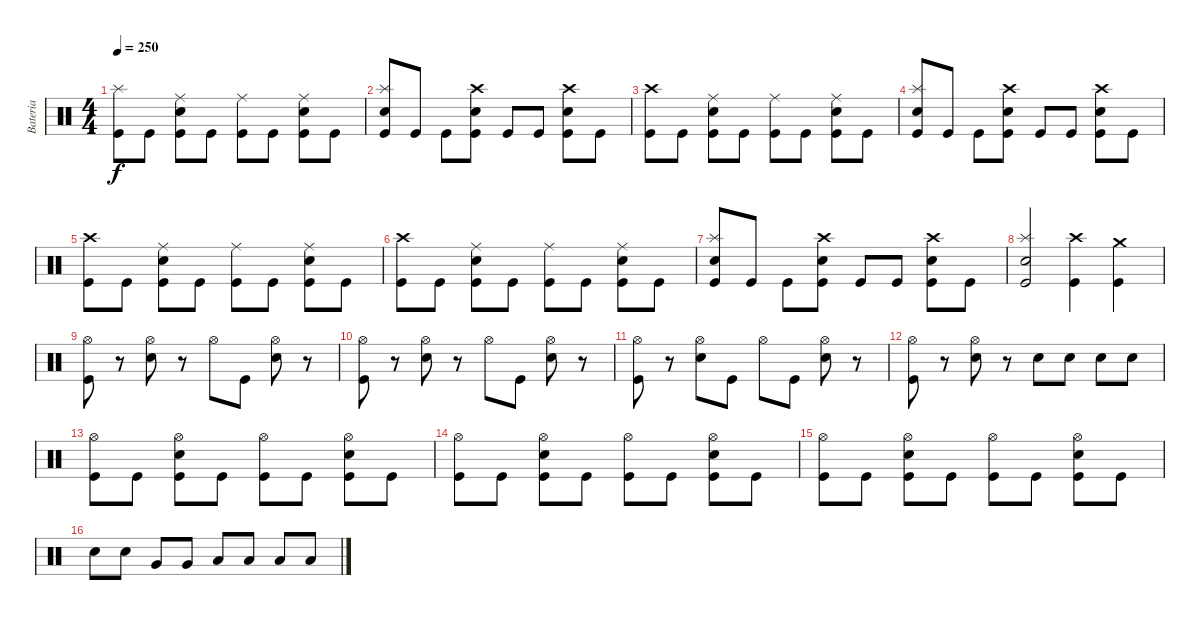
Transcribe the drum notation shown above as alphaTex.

\track ("Bateria" "Bateria") {instrument percussion}
\staff {score}
\articulation defaults
\ts (4 4)
\tempo 250
\clef neutral
\ks c
("Kick (hit)" "Splash (hit)").8{dy f} "Kick (hit)".8 ("Kick (hit)" "Electric Snare (hit)" "Ride (middle)").8 "Kick (hit)".8 ("Kick (hit)" "Ride (middle)").8 "Kick (hit)".8 ("Kick (hit)" "Electric Snare (hit)" "Ride (middle)").8 "Kick (hit)".8 |
("Kick (hit)" "Electric Snare (hit)" "Splash (hit)").8 "Kick (hit)".8 "Kick (hit)".8 ("Kick (hit)" "Electric Snare (hit)" "Crash high (hit)").8 "Kick (hit)".8 "Kick (hit)".8 ("Kick (hit)" "Electric Snare (hit)" "Crash high (hit)").8 "Kick (hit)".8 |
("Kick (hit)" "Crash high (hit)").8 "Kick (hit)".8 ("Kick (hit)" "Electric Snare (hit)" "Ride (middle)").8 "Kick (hit)".8 ("Kick (hit)" "Ride (middle)").8 "Kick (hit)".8 ("Kick (hit)" "Electric Snare (hit)" "Ride (middle)").8 "Kick (hit)".8 |
("Kick (hit)" "Electric Snare (hit)" "Splash (hit)").8 "Kick (hit)".8 "Kick (hit)".8 ("Kick (hit)" "Electric Snare (hit)" "Crash high (hit)").8 "Kick (hit)".8 "Kick (hit)".8 ("Kick (hit)" "Electric Snare (hit)" "Crash high (hit)").8 "Kick (hit)".8 |
("Kick (hit)" "Crash high (hit)").8 "Kick (hit)".8 ("Kick (hit)" "Electric Snare (hit)" "Ride (middle)").8 "Kick (hit)".8 ("Kick (hit)" "Ride (middle)").8 "Kick (hit)".8 ("Kick (hit)" "Electric Snare (hit)" "Ride (middle)").8 "Kick (hit)".8 |
("Kick (hit)" "Crash high (hit)").8 "Kick (hit)".8 ("Kick (hit)" "Electric Snare (hit)" "Ride (middle)").8 "Kick (hit)".8 ("Kick (hit)" "Ride (middle)").8 "Kick (hit)".8 ("Kick (hit)" "Electric Snare (hit)" "Ride (middle)").8 "Kick (hit)".8 |
("Kick (hit)" "Electric Snare (hit)" "Splash (hit)").8 "Kick (hit)".8 "Kick (hit)".8 ("Kick (hit)" "Electric Snare (hit)" "Crash high (hit)").8 "Kick (hit)".8 "Kick (hit)".8 ("Kick (hit)" "Electric Snare (hit)" "Crash high (hit)").8 "Kick (hit)".8 |
("Kick (hit)" "Electric Snare (hit)" "Splash (hit)").2 ("Kick (hit)" "Crash high (hit)").4 ("Kick (hit)" "Crash medium (hit)").4 |
("Kick (hit)" "Hi-Hat (open)").8 r.8 ("Electric Snare (hit)" "Hi-Hat (open)").8 r.8 "Hi-Hat (open)".8 "Kick (hit)".8 ("Electric Snare (hit)" "Hi-Hat (open)").8 r.8 |
("Kick (hit)" "Hi-Hat (open)").8 r.8 ("Electric Snare (hit)" "Hi-Hat (open)").8 r.8 "Hi-Hat (open)".8 "Kick (hit)".8 ("Electric Snare (hit)" "Hi-Hat (open)").8 r.8 |
("Kick (hit)" "Hi-Hat (open)").8 r.8 ("Electric Snare (hit)" "Hi-Hat (open)").8 "Kick (hit)".8 "Hi-Hat (open)".8 "Kick (hit)".8 ("Electric Snare (hit)" "Hi-Hat (open)").8 r.8 |
("Kick (hit)" "Hi-Hat (open)").8 r.8 ("Electric Snare (hit)" "Hi-Hat (open)").8 r.8 "Electric Snare (hit)".8 "Electric Snare (hit)".8 "Electric Snare (hit)".8 "Electric Snare (hit)".8 |
("Kick (hit)" "Hi-Hat (open)").8 "Kick (hit)".8 ("Kick (hit)" "Electric Snare (hit)" "Hi-Hat (open)").8 "Kick (hit)".8 ("Kick (hit)" "Hi-Hat (open)").8 "Kick (hit)".8 ("Kick (hit)" "Electric Snare (hit)" "Hi-Hat (open)").8 "Kick (hit)".8 |
("Kick (hit)" "Hi-Hat (open)").8 "Kick (hit)".8 ("Kick (hit)" "Electric Snare (hit)" "Hi-Hat (open)").8 "Kick (hit)".8 ("Kick (hit)" "Hi-Hat (open)").8 "Kick (hit)".8 ("Kick (hit)" "Electric Snare (hit)" "Hi-Hat (open)").8 "Kick (hit)".8 |
("Kick (hit)" "Hi-Hat (open)").8 "Kick (hit)".8 ("Kick (hit)" "Electric Snare (hit)" "Hi-Hat (open)").8 "Kick (hit)".8 ("Kick (hit)" "Hi-Hat (open)").8 "Kick (hit)".8 ("Kick (hit)" "Electric Snare (hit)" "Hi-Hat (open)").8 "Kick (hit)".8 |
"Electric Snare (hit)".8 "Electric Snare (hit)".8 "Very Low Tom (hit)".8 "Very Low Tom (hit)".8 "Low Floor Tom (hit)".8 "Low Floor Tom (hit)".8 "Low Tom (hit)".8 "Low Tom (hit)".8
